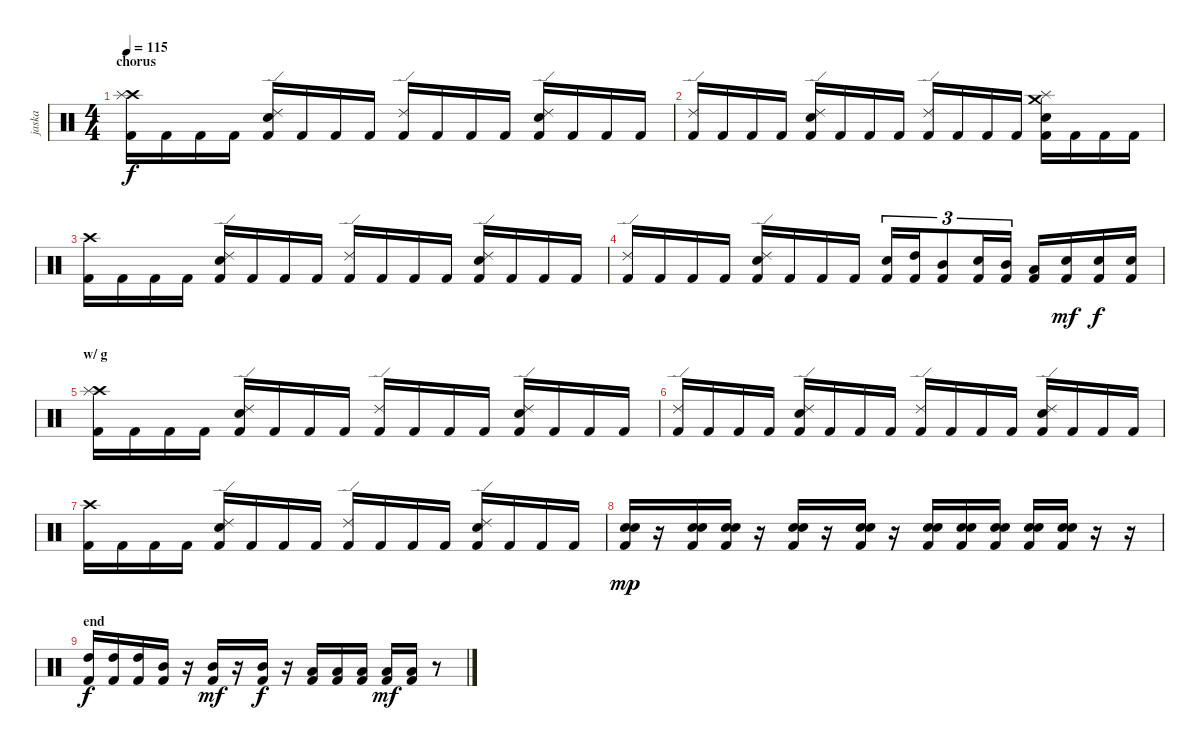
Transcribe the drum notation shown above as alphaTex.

\track ("jaska" "jaska") {instrument percussion}
\staff {score}
\articulation defaults
\ts (4 4)
\section ("" "chorus")
\tempo 115
\clef neutral
\ks c
("Crash high (hit)" "Splash (hit)" "Kick (hit) 2").16{dy f} "Kick (hit) 2".16 "Kick (hit) 2".16 "Kick (hit) 2".16 ("Ride (edge) 2" "Electric Snare (hit)" "Kick (hit) 2").16 "Kick (hit) 2".16 "Kick (hit) 2".16 "Kick (hit) 2".16 ("Ride (edge) 2" "Kick (hit) 2").16 "Kick (hit) 2".16 "Kick (hit) 2".16 "Kick (hit) 2".16 ("Ride (edge) 2" "Electric Snare (hit)" "Kick (hit) 2").16 "Kick (hit) 2".16 "Kick (hit) 2".16 "Kick (hit) 2".16 |
("Ride (edge) 2" "Kick (hit) 2").16 "Kick (hit) 2".16 "Kick (hit) 2".16 "Kick (hit) 2".16 ("Ride (edge) 2" "Electric Snare (hit)" "Kick (hit) 2").16 "Kick (hit) 2".16 "Kick (hit) 2".16 "Kick (hit) 2".16 ("Ride (edge) 2" "Kick (hit) 2").16 "Kick (hit) 2".16 "Kick (hit) 2".16 "Kick (hit) 2".16 ("Crash medium (hit)" "Splash (hit)" "Electric Snare (hit)" "Kick (hit) 2").16 "Kick (hit) 2".16 "Kick (hit) 2".16 "Kick (hit) 2".16 |
("Crash high (hit)" "Kick (hit) 2").16 "Kick (hit) 2".16 "Kick (hit) 2".16 "Kick (hit) 2".16 ("Ride (edge) 2" "Electric Snare (hit)" "Kick (hit) 2").16 "Kick (hit) 2".16 "Kick (hit) 2".16 "Kick (hit) 2".16 ("Ride (edge) 2" "Kick (hit) 2").16 "Kick (hit) 2".16 "Kick (hit) 2".16 "Kick (hit) 2".16 ("Ride (edge) 2" "Electric Snare (hit)" "Kick (hit) 2").16 "Kick (hit) 2".16 "Kick (hit) 2".16 "Kick (hit) 2".16 |
("Ride (edge) 2" "Kick (hit) 2").16 "Kick (hit) 2".16 "Kick (hit) 2".16 "Kick (hit) 2".16 ("Ride (edge) 2" "Electric Snare (hit)" "Kick (hit) 2").16 "Kick (hit) 2".16 "Kick (hit) 2".16 "Kick (hit) 2".16 ("Electric Snare (hit)" "Kick (hit) 2").16{tu (3 2)} ("High Tom (hit)" "Kick (hit) 2").16{tu (3 2)} ("Mid Tom (hit)" "Kick (hit) 2").8{tu (3 2)} ("Electric Snare (hit)" "Kick (hit) 2").16{tu (3 2)} ("Mid Tom (hit)" "Kick (hit) 2").16{tu (3 2)} ("Low Tom (hit)" "Kick (hit) 2").16 ("Electric Snare (hit)" "Kick (hit) 2").16{dy mf} ("Electric Snare (hit)" "Kick (hit) 2").16{dy f} ("Electric Snare (hit)" "Kick (hit) 2").16 |
\section ("" "w/ g")
("Crash high (hit)" "Splash (hit)" "Kick (hit) 2").16 "Kick (hit) 2".16 "Kick (hit) 2".16 "Kick (hit) 2".16 ("Ride (edge) 2" "Electric Snare (hit)" "Kick (hit) 2").16 "Kick (hit) 2".16 "Kick (hit) 2".16 "Kick (hit) 2".16 ("Ride (edge) 2" "Kick (hit) 2").16 "Kick (hit) 2".16 "Kick (hit) 2".16 "Kick (hit) 2".16 ("Ride (edge) 2" "Electric Snare (hit)" "Kick (hit) 2").16 "Kick (hit) 2".16 "Kick (hit) 2".16 "Kick (hit) 2".16 |
("Ride (edge) 2" "Kick (hit) 2").16 "Kick (hit) 2".16 "Kick (hit) 2".16 "Kick (hit) 2".16 ("Ride (edge) 2" "Electric Snare (hit)" "Kick (hit) 2").16 "Kick (hit) 2".16 "Kick (hit) 2".16 "Kick (hit) 2".16 ("Ride (edge) 2" "Kick (hit) 2").16 "Kick (hit) 2".16 "Kick (hit) 2".16 "Kick (hit) 2".16 ("Ride (edge) 2" "Electric Snare (hit)" "Kick (hit) 2").16 "Kick (hit) 2".16 "Kick (hit) 2".16 "Kick (hit) 2".16 |
("Crash high (hit)" "Kick (hit) 2").16 "Kick (hit) 2".16 "Kick (hit) 2".16 "Kick (hit) 2".16 ("Ride (edge) 2" "Electric Snare (hit)" "Kick (hit) 2").16 "Kick (hit) 2".16 "Kick (hit) 2".16 "Kick (hit) 2".16 ("Ride (edge) 2" "Kick (hit) 2").16 "Kick (hit) 2".16 "Kick (hit) 2".16 "Kick (hit) 2".16 ("Ride (edge) 2" "Electric Snare (hit)" "Kick (hit) 2").16 "Kick (hit) 2".16 "Kick (hit) 2".16 "Kick (hit) 2".16 |
("Snare (hit) 2" "Electric Snare (hit)" "Kick (hit) 2").16{dy mp} r.16 ("Snare (hit) 2" "Electric Snare (hit)" "Kick (hit) 2").16 ("Snare (hit) 2" "Electric Snare (hit)" "Kick (hit) 2").16 r.16 ("Snare (hit) 2" "Electric Snare (hit)" "Kick (hit) 2").16 r.16 ("Snare (hit) 2" "Electric Snare (hit)" "Kick (hit) 2").16 r.16 ("Snare (hit) 2" "Electric Snare (hit)" "Kick (hit) 2").16 ("Snare (hit) 2" "Electric Snare (hit)" "Kick (hit) 2").16 ("Snare (hit) 2" "Electric Snare (hit)" "Kick (hit) 2").16 ("Snare (hit) 2" "Electric Snare (hit)" "Kick (hit) 2").16 ("Snare (hit) 2" "Electric Snare (hit)" "Kick (hit) 2").16 r.16 r.16 |
\section ("" "end")
("High Tom (hit)" "Kick (hit) 2").16{dy f} ("High Tom (hit)" "Kick (hit) 2").16 ("High Tom (hit)" "Kick (hit) 2").16 ("Mid Tom (hit)" "Kick (hit) 2").16 r.16 ("Mid Tom (hit)" "Kick (hit) 2").16{dy mf} r.16 ("Mid Tom (hit)" "Kick (hit) 2").16{dy f} r.16 ("Low Tom (hit)" "Kick (hit) 2").16 ("Low Tom (hit)" "Kick (hit) 2").16 ("Low Tom (hit)" "Kick (hit) 2").16 ("Low Tom (hit)" "Kick (hit) 2").16{dy mf} ("Low Tom (hit)" "Kick (hit) 2").16 r.8
